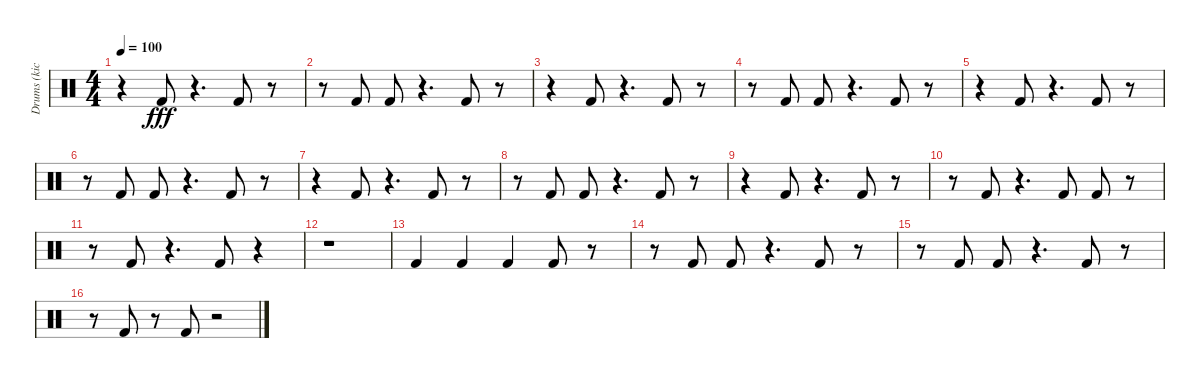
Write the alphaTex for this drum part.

\track ("Drums (kick)" "Drums (kic") {instrument percussion}
\staff {score}
\articulation defaults
\ts (4 4)
\tempo 100
\clef neutral
\ks c
r.4{dy fff} "Kick (hit) 2".8 r.4{d} "Kick (hit) 2".8 r.8 |
r.8 "Kick (hit) 2".8 "Kick (hit) 2".8 r.4{d} "Kick (hit) 2".8 r.8 |
r.4 "Kick (hit) 2".8 r.4{d} "Kick (hit) 2".8 r.8 |
r.8 "Kick (hit) 2".8 "Kick (hit) 2".8 r.4{d} "Kick (hit) 2".8 r.8 |
r.4 "Kick (hit) 2".8 r.4{d} "Kick (hit) 2".8 r.8 |
r.8 "Kick (hit) 2".8 "Kick (hit) 2".8 r.4{d} "Kick (hit) 2".8 r.8 |
r.4 "Kick (hit) 2".8 r.4{d} "Kick (hit) 2".8 r.8 |
r.8 "Kick (hit) 2".8 "Kick (hit) 2".8 r.4{d} "Kick (hit) 2".8 r.8 |
r.4 "Kick (hit) 2".8 r.4{d} "Kick (hit) 2".8 r.8 |
r.8 "Kick (hit) 2".8 r.4{d} "Kick (hit) 2".8 "Kick (hit) 2".8 r.8 |
r.8 "Kick (hit) 2".8 r.4{d} "Kick (hit) 2".8 r.4 |
r.1 |
"Kick (hit) 2".4 "Kick (hit) 2".4 "Kick (hit) 2".4 "Kick (hit) 2".8 r.8 |
r.8 "Kick (hit) 2".8 "Kick (hit) 2".8 r.4{d} "Kick (hit) 2".8 r.8 |
r.8 "Kick (hit) 2".8 "Kick (hit) 2".8 r.4{d} "Kick (hit) 2".8 r.8 |
r.8 "Kick (hit) 2".8 r.8 "Kick (hit) 2".8 r.2
